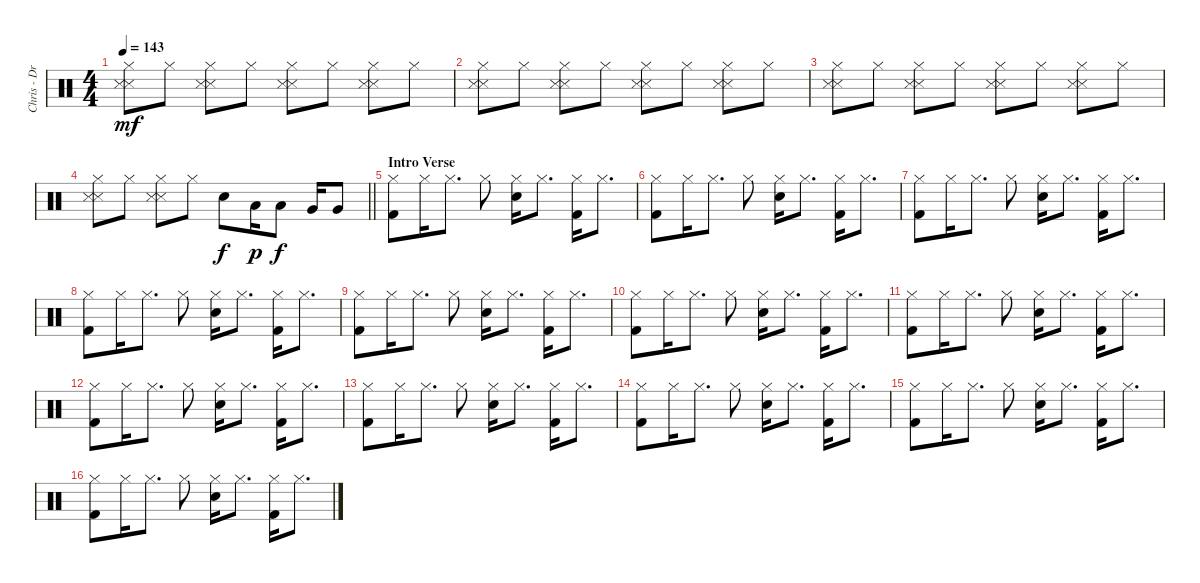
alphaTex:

\track ("Chris - Drums" "Chris - Dr") {instrument percussion}
\staff {score}
\articulation defaults
\ts (4 4)
\tempo 143
\clef neutral
\ks c
("Hi-Hat (closed)" "Snare (side stick) 3" "Snare (side stick) 3").8{dy mf} "Hi-Hat (closed)".8 ("Hi-Hat (closed)" "Snare (side stick) 3" "Snare (side stick) 3").8 "Hi-Hat (closed)".8 ("Hi-Hat (closed)" "Snare (side stick) 3" "Snare (side stick) 3").8 "Hi-Hat (closed)".8 ("Hi-Hat (closed)" "Snare (side stick) 3" "Snare (side stick) 3").8 "Hi-Hat (closed)".8 |
("Hi-Hat (closed)" "Snare (side stick) 3" "Snare (side stick) 3").8 "Hi-Hat (closed)".8 ("Hi-Hat (closed)" "Snare (side stick) 3" "Snare (side stick) 3").8 "Hi-Hat (closed)".8 ("Hi-Hat (closed)" "Snare (side stick) 3" "Snare (side stick) 3").8 "Hi-Hat (closed)".8 ("Hi-Hat (closed)" "Snare (side stick) 3" "Snare (side stick) 3").8 "Hi-Hat (closed)".8 |
("Hi-Hat (closed)" "Snare (side stick) 3" "Snare (side stick) 3").8 "Hi-Hat (closed)".8 ("Hi-Hat (closed)" "Snare (side stick) 3" "Snare (side stick) 3").8 "Hi-Hat (closed)".8 ("Hi-Hat (closed)" "Snare (side stick) 3" "Snare (side stick) 3").8 "Hi-Hat (closed)".8 ("Hi-Hat (closed)" "Snare (side stick) 3" "Snare (side stick) 3").8 "Hi-Hat (closed)".8 |
\barLineRight lightlight
("Hi-Hat (closed)" "Snare (side stick) 3" "Snare (side stick) 3").8 "Hi-Hat (closed)".8 ("Hi-Hat (closed)" "Snare (side stick) 3" "Snare (side stick) 3").8 "Hi-Hat (closed)".8 "Electric Snare (hit)".8{dy f} "Low Tom (hit)".16{dy p} "Low Tom (hit)".8{dy f} "Very Low Tom (hit)".16 "Very Low Tom (hit)".8 |
\section ("" "Intro Verse")
("Hi-Hat (closed)" "Kick (hit) 2").8 "Hi-Hat (closed)".16 "Hi-Hat (closed)".8{d} "Hi-Hat (closed)".8 ("Hi-Hat (closed)" "Electric Snare (hit)").16 "Hi-Hat (closed)".8{d} ("Hi-Hat (closed)" "Kick (hit) 2").16 "Hi-Hat (closed)".8{d} |
("Hi-Hat (closed)" "Kick (hit) 2").8 "Hi-Hat (closed)".16 "Hi-Hat (closed)".8{d} "Hi-Hat (closed)".8 ("Hi-Hat (closed)" "Electric Snare (hit)").16 "Hi-Hat (closed)".8{d} ("Hi-Hat (closed)" "Kick (hit) 2").16 "Hi-Hat (closed)".8{d} |
("Hi-Hat (closed)" "Kick (hit) 2").8 "Hi-Hat (closed)".16 "Hi-Hat (closed)".8{d} "Hi-Hat (closed)".8 ("Hi-Hat (closed)" "Electric Snare (hit)").16 "Hi-Hat (closed)".8{d} ("Hi-Hat (closed)" "Kick (hit) 2").16 "Hi-Hat (closed)".8{d} |
("Hi-Hat (closed)" "Kick (hit) 2").8 "Hi-Hat (closed)".16 "Hi-Hat (closed)".8{d} "Hi-Hat (closed)".8 ("Hi-Hat (closed)" "Electric Snare (hit)").16 "Hi-Hat (closed)".8{d} ("Hi-Hat (closed)" "Kick (hit) 2").16 "Hi-Hat (closed)".8{d} |
("Hi-Hat (closed)" "Kick (hit) 2").8 "Hi-Hat (closed)".16 "Hi-Hat (closed)".8{d} "Hi-Hat (closed)".8 ("Hi-Hat (closed)" "Electric Snare (hit)").16 "Hi-Hat (closed)".8{d} ("Hi-Hat (closed)" "Kick (hit) 2").16 "Hi-Hat (closed)".8{d} |
("Hi-Hat (closed)" "Kick (hit) 2").8 "Hi-Hat (closed)".16 "Hi-Hat (closed)".8{d} "Hi-Hat (closed)".8 ("Hi-Hat (closed)" "Electric Snare (hit)").16 "Hi-Hat (closed)".8{d} ("Hi-Hat (closed)" "Kick (hit) 2").16 "Hi-Hat (closed)".8{d} |
("Hi-Hat (closed)" "Kick (hit) 2").8 "Hi-Hat (closed)".16 "Hi-Hat (closed)".8{d} "Hi-Hat (closed)".8 ("Hi-Hat (closed)" "Electric Snare (hit)").16 "Hi-Hat (closed)".8{d} ("Hi-Hat (closed)" "Kick (hit) 2").16 "Hi-Hat (closed)".8{d} |
("Hi-Hat (closed)" "Kick (hit) 2").8 "Hi-Hat (closed)".16 "Hi-Hat (closed)".8{d} "Hi-Hat (closed)".8 ("Hi-Hat (closed)" "Electric Snare (hit)").16 "Hi-Hat (closed)".8{d} ("Hi-Hat (closed)" "Kick (hit) 2").16 "Hi-Hat (closed)".8{d} |
("Hi-Hat (closed)" "Kick (hit) 2").8 "Hi-Hat (closed)".16 "Hi-Hat (closed)".8{d} "Hi-Hat (closed)".8 ("Hi-Hat (closed)" "Electric Snare (hit)").16 "Hi-Hat (closed)".8{d} ("Hi-Hat (closed)" "Kick (hit) 2").16 "Hi-Hat (closed)".8{d} |
("Hi-Hat (closed)" "Kick (hit) 2").8 "Hi-Hat (closed)".16 "Hi-Hat (closed)".8{d} "Hi-Hat (closed)".8 ("Hi-Hat (closed)" "Electric Snare (hit)").16 "Hi-Hat (closed)".8{d} ("Hi-Hat (closed)" "Kick (hit) 2").16 "Hi-Hat (closed)".8{d} |
("Hi-Hat (closed)" "Kick (hit) 2").8 "Hi-Hat (closed)".16 "Hi-Hat (closed)".8{d} "Hi-Hat (closed)".8 ("Hi-Hat (closed)" "Electric Snare (hit)").16 "Hi-Hat (closed)".8{d} ("Hi-Hat (closed)" "Kick (hit) 2").16 "Hi-Hat (closed)".8{d} |
("Hi-Hat (closed)" "Kick (hit) 2").8 "Hi-Hat (closed)".16 "Hi-Hat (closed)".8{d} "Hi-Hat (closed)".8 ("Hi-Hat (closed)" "Electric Snare (hit)").16 "Hi-Hat (closed)".8{d} ("Hi-Hat (closed)" "Kick (hit) 2").16 "Hi-Hat (closed)".8{d}
